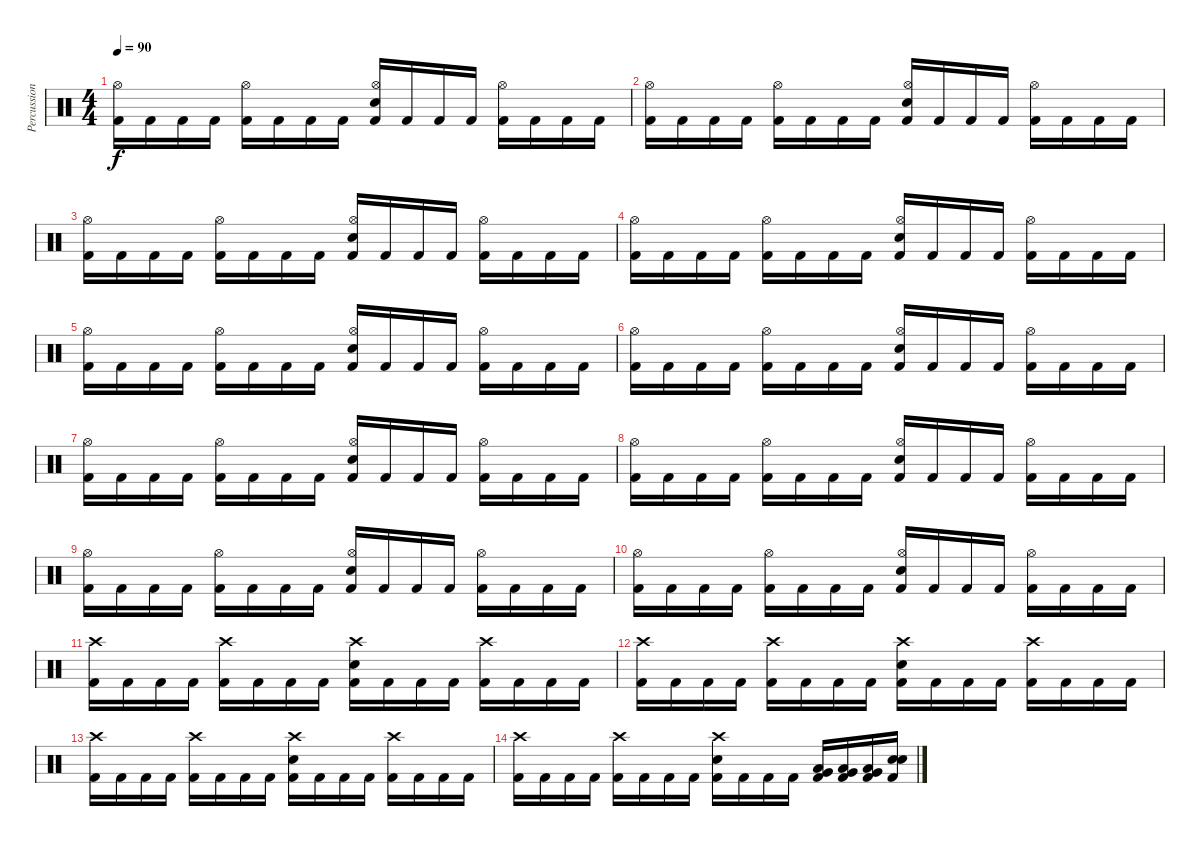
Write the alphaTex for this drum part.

\track ("Percussion" "Percussion") {instrument percussion}
\staff {score}
\articulation defaults
\ts (4 4)
\tempo 90
\clef neutral
\ks c
("Kick (hit) 2" "Hi-Hat (open)").16{dy f} "Kick (hit) 2".16 "Kick (hit) 2".16 "Kick (hit) 2".16 ("Kick (hit) 2" "Hi-Hat (open)").16 "Kick (hit) 2".16 "Kick (hit) 2".16 "Kick (hit) 2".16 ("Kick (hit) 2" "Hi-Hat (open)" "Electric Snare (hit)").16 "Kick (hit) 2".16 "Kick (hit) 2".16 "Kick (hit) 2".16 ("Kick (hit) 2" "Hi-Hat (open)").16 "Kick (hit) 2".16 "Kick (hit) 2".16 "Kick (hit) 2".16 |
("Kick (hit) 2" "Hi-Hat (open)").16 "Kick (hit) 2".16 "Kick (hit) 2".16 "Kick (hit) 2".16 ("Kick (hit) 2" "Hi-Hat (open)").16 "Kick (hit) 2".16 "Kick (hit) 2".16 "Kick (hit) 2".16 ("Kick (hit) 2" "Hi-Hat (open)" "Electric Snare (hit)").16 "Kick (hit) 2".16 "Kick (hit) 2".16 "Kick (hit) 2".16 ("Kick (hit) 2" "Hi-Hat (open)").16 "Kick (hit) 2".16 "Kick (hit) 2".16 "Kick (hit) 2".16 |
("Kick (hit) 2" "Hi-Hat (open)").16 "Kick (hit) 2".16 "Kick (hit) 2".16 "Kick (hit) 2".16 ("Kick (hit) 2" "Hi-Hat (open)").16 "Kick (hit) 2".16 "Kick (hit) 2".16 "Kick (hit) 2".16 ("Kick (hit) 2" "Hi-Hat (open)" "Electric Snare (hit)").16 "Kick (hit) 2".16 "Kick (hit) 2".16 "Kick (hit) 2".16 ("Kick (hit) 2" "Hi-Hat (open)").16 "Kick (hit) 2".16 "Kick (hit) 2".16 "Kick (hit) 2".16 |
("Kick (hit) 2" "Hi-Hat (open)").16 "Kick (hit) 2".16 "Kick (hit) 2".16 "Kick (hit) 2".16 ("Kick (hit) 2" "Hi-Hat (open)").16 "Kick (hit) 2".16 "Kick (hit) 2".16 "Kick (hit) 2".16 ("Kick (hit) 2" "Hi-Hat (open)" "Electric Snare (hit)").16 "Kick (hit) 2".16 "Kick (hit) 2".16 "Kick (hit) 2".16 ("Kick (hit) 2" "Hi-Hat (open)").16 "Kick (hit) 2".16 "Kick (hit) 2".16 "Kick (hit) 2".16 |
("Kick (hit) 2" "Hi-Hat (open)").16 "Kick (hit) 2".16 "Kick (hit) 2".16 "Kick (hit) 2".16 ("Kick (hit) 2" "Hi-Hat (open)").16 "Kick (hit) 2".16 "Kick (hit) 2".16 "Kick (hit) 2".16 ("Kick (hit) 2" "Hi-Hat (open)" "Electric Snare (hit)").16 "Kick (hit) 2".16 "Kick (hit) 2".16 "Kick (hit) 2".16 ("Kick (hit) 2" "Hi-Hat (open)").16 "Kick (hit) 2".16 "Kick (hit) 2".16 "Kick (hit) 2".16 |
("Kick (hit) 2" "Hi-Hat (open)").16 "Kick (hit) 2".16 "Kick (hit) 2".16 "Kick (hit) 2".16 ("Kick (hit) 2" "Hi-Hat (open)").16 "Kick (hit) 2".16 "Kick (hit) 2".16 "Kick (hit) 2".16 ("Kick (hit) 2" "Hi-Hat (open)" "Electric Snare (hit)").16 "Kick (hit) 2".16 "Kick (hit) 2".16 "Kick (hit) 2".16 ("Kick (hit) 2" "Hi-Hat (open)").16 "Kick (hit) 2".16 "Kick (hit) 2".16 "Kick (hit) 2".16 |
("Kick (hit) 2" "Hi-Hat (open)").16 "Kick (hit) 2".16 "Kick (hit) 2".16 "Kick (hit) 2".16 ("Kick (hit) 2" "Hi-Hat (open)").16 "Kick (hit) 2".16 "Kick (hit) 2".16 "Kick (hit) 2".16 ("Kick (hit) 2" "Hi-Hat (open)" "Electric Snare (hit)").16 "Kick (hit) 2".16 "Kick (hit) 2".16 "Kick (hit) 2".16 ("Kick (hit) 2" "Hi-Hat (open)").16 "Kick (hit) 2".16 "Kick (hit) 2".16 "Kick (hit) 2".16 |
("Kick (hit) 2" "Hi-Hat (open)").16 "Kick (hit) 2".16 "Kick (hit) 2".16 "Kick (hit) 2".16 ("Kick (hit) 2" "Hi-Hat (open)").16 "Kick (hit) 2".16 "Kick (hit) 2".16 "Kick (hit) 2".16 ("Kick (hit) 2" "Hi-Hat (open)" "Electric Snare (hit)").16 "Kick (hit) 2".16 "Kick (hit) 2".16 "Kick (hit) 2".16 ("Kick (hit) 2" "Hi-Hat (open)").16 "Kick (hit) 2".16 "Kick (hit) 2".16 "Kick (hit) 2".16 |
("Kick (hit) 2" "Hi-Hat (open)").16 "Kick (hit) 2".16 "Kick (hit) 2".16 "Kick (hit) 2".16 ("Kick (hit) 2" "Hi-Hat (open)").16 "Kick (hit) 2".16 "Kick (hit) 2".16 "Kick (hit) 2".16 ("Kick (hit) 2" "Hi-Hat (open)" "Electric Snare (hit)").16 "Kick (hit) 2".16 "Kick (hit) 2".16 "Kick (hit) 2".16 ("Kick (hit) 2" "Hi-Hat (open)").16 "Kick (hit) 2".16 "Kick (hit) 2".16 "Kick (hit) 2".16 |
("Kick (hit) 2" "Hi-Hat (open)").16 "Kick (hit) 2".16 "Kick (hit) 2".16 "Kick (hit) 2".16 ("Kick (hit) 2" "Hi-Hat (open)").16 "Kick (hit) 2".16 "Kick (hit) 2".16 "Kick (hit) 2".16 ("Kick (hit) 2" "Hi-Hat (open)" "Electric Snare (hit)").16 "Kick (hit) 2".16 "Kick (hit) 2".16 "Kick (hit) 2".16 ("Kick (hit) 2" "Hi-Hat (open)").16 "Kick (hit) 2".16 "Kick (hit) 2".16 "Kick (hit) 2".16 |
("Kick (hit) 2" "Crash high (hit)").16 "Kick (hit) 2".16 "Kick (hit) 2".16 "Kick (hit) 2".16 ("Kick (hit) 2" "Crash high (hit)").16 "Kick (hit) 2".16 "Kick (hit) 2".16 "Kick (hit) 2".16 ("Kick (hit) 2" "Crash high (hit)" "Electric Snare (hit)").16 "Kick (hit) 2".16 "Kick (hit) 2".16 "Kick (hit) 2".16 ("Kick (hit) 2" "Crash high (hit)").16 "Kick (hit) 2".16 "Kick (hit) 2".16 "Kick (hit) 2".16 |
("Kick (hit) 2" "Crash high (hit)").16 "Kick (hit) 2".16 "Kick (hit) 2".16 "Kick (hit) 2".16 ("Kick (hit) 2" "Crash high (hit)").16 "Kick (hit) 2".16 "Kick (hit) 2".16 "Kick (hit) 2".16 ("Kick (hit) 2" "Crash high (hit)" "Electric Snare (hit)").16 "Kick (hit) 2".16 "Kick (hit) 2".16 "Kick (hit) 2".16 ("Kick (hit) 2" "Crash high (hit)").16 "Kick (hit) 2".16 "Kick (hit) 2".16 "Kick (hit) 2".16 |
("Kick (hit) 2" "Crash high (hit)").16 "Kick (hit) 2".16 "Kick (hit) 2".16 "Kick (hit) 2".16 ("Kick (hit) 2" "Crash high (hit)").16 "Kick (hit) 2".16 "Kick (hit) 2".16 "Kick (hit) 2".16 ("Kick (hit) 2" "Crash high (hit)" "Electric Snare (hit)").16 "Kick (hit) 2".16 "Kick (hit) 2".16 "Kick (hit) 2".16 ("Kick (hit) 2" "Crash high (hit)").16 "Kick (hit) 2".16 "Kick (hit) 2".16 "Kick (hit) 2".16 |
("Kick (hit) 2" "Crash high (hit)").16 "Kick (hit) 2".16 "Kick (hit) 2".16 "Kick (hit) 2".16 ("Kick (hit) 2" "Crash high (hit)").16 "Kick (hit) 2".16 "Kick (hit) 2".16 "Kick (hit) 2".16 ("Kick (hit) 2" "Crash high (hit)" "Electric Snare (hit)").16 "Kick (hit) 2".16 "Kick (hit) 2".16 "Kick (hit) 2".16 ("Kick (hit) 2" "Low Tom (hit)" "Very Low Tom (hit)").16 ("Kick (hit) 2" "Low Tom (hit)" "Very Low Tom (hit)").16 ("Kick (hit) 2" "Low Tom (hit)" "Very Low Tom (hit)").16 ("Kick (hit) 2" "Electric Snare (hit)" "Electric Snare (hit)").16
